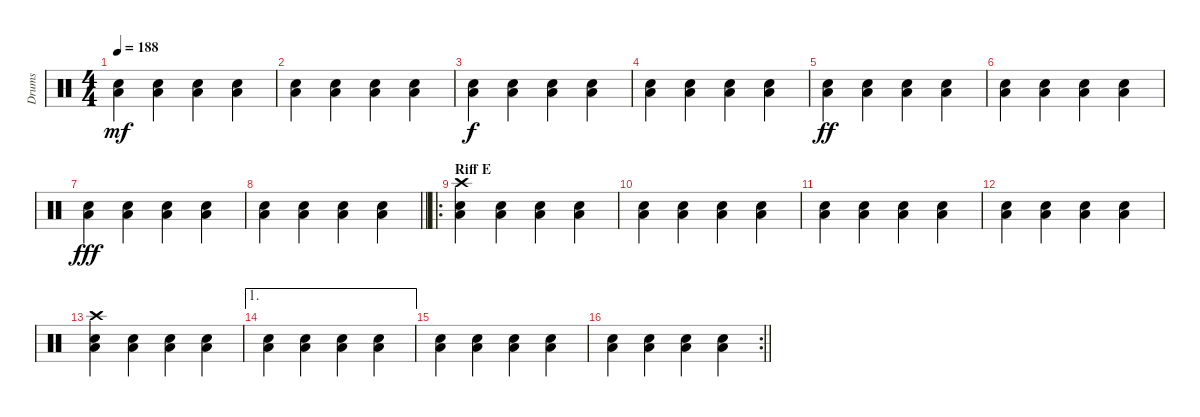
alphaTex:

\track ("Drums" "Drums") {instrument percussion}
\staff {score}
\articulation defaults
\ts (4 4)
\tempo 188
\clef neutral
\ks c
("Electric Snare (hit)" "Low Tom (hit)").4{dy mf} ("Electric Snare (hit)" "Low Tom (hit)").4 ("Electric Snare (hit)" "Low Tom (hit)").4 ("Electric Snare (hit)" "Low Tom (hit)").4 |
("Electric Snare (hit)" "Low Tom (hit)").4 ("Electric Snare (hit)" "Low Tom (hit)").4 ("Electric Snare (hit)" "Low Tom (hit)").4 ("Electric Snare (hit)" "Low Tom (hit)").4 |
("Electric Snare (hit)" "Low Tom (hit)").4{dy f} ("Electric Snare (hit)" "Low Tom (hit)").4 ("Electric Snare (hit)" "Low Tom (hit)").4 ("Electric Snare (hit)" "Low Tom (hit)").4 |
("Electric Snare (hit)" "Low Tom (hit)").4 ("Electric Snare (hit)" "Low Tom (hit)").4 ("Electric Snare (hit)" "Low Tom (hit)").4 ("Electric Snare (hit)" "Low Tom (hit)").4 |
("Electric Snare (hit)" "Low Tom (hit)").4{dy ff} ("Electric Snare (hit)" "Low Tom (hit)").4 ("Electric Snare (hit)" "Low Tom (hit)").4 ("Electric Snare (hit)" "Low Tom (hit)").4 |
("Electric Snare (hit)" "Low Tom (hit)").4 ("Electric Snare (hit)" "Low Tom (hit)").4 ("Electric Snare (hit)" "Low Tom (hit)").4 ("Electric Snare (hit)" "Low Tom (hit)").4 |
("Electric Snare (hit)" "Low Tom (hit)").4{dy fff} ("Electric Snare (hit)" "Low Tom (hit)").4 ("Electric Snare (hit)" "Low Tom (hit)").4 ("Electric Snare (hit)" "Low Tom (hit)").4 |
\barLineRight lightlight
("Electric Snare (hit)" "Low Tom (hit)").4 ("Electric Snare (hit)" "Low Tom (hit)").4 ("Electric Snare (hit)" "Low Tom (hit)").4 ("Electric Snare (hit)" "Low Tom (hit)").4 |
\ro
\section ("" "Riff E")
("Crash high (hit)" "Electric Snare (hit)" "Low Tom (hit)").4 ("Electric Snare (hit)" "Low Tom (hit)").4 ("Electric Snare (hit)" "Low Tom (hit)").4 ("Electric Snare (hit)" "Low Tom (hit)").4 |
("Electric Snare (hit)" "Low Tom (hit)").4 ("Electric Snare (hit)" "Low Tom (hit)").4 ("Electric Snare (hit)" "Low Tom (hit)").4 ("Electric Snare (hit)" "Low Tom (hit)").4 |
("Electric Snare (hit)" "Low Tom (hit)").4 ("Electric Snare (hit)" "Low Tom (hit)").4 ("Electric Snare (hit)" "Low Tom (hit)").4 ("Electric Snare (hit)" "Low Tom (hit)").4 |
("Electric Snare (hit)" "Low Tom (hit)").4 ("Electric Snare (hit)" "Low Tom (hit)").4 ("Electric Snare (hit)" "Low Tom (hit)").4 ("Electric Snare (hit)" "Low Tom (hit)").4 |
("Crash high (hit)" "Electric Snare (hit)" "Low Tom (hit)").4 ("Electric Snare (hit)" "Low Tom (hit)").4 ("Electric Snare (hit)" "Low Tom (hit)").4 ("Electric Snare (hit)" "Low Tom (hit)").4 |
\ae 1
("Electric Snare (hit)" "Low Tom (hit)").4 ("Electric Snare (hit)" "Low Tom (hit)").4 ("Electric Snare (hit)" "Low Tom (hit)").4 ("Electric Snare (hit)" "Low Tom (hit)").4 |
("Electric Snare (hit)" "Low Tom (hit)").4 ("Electric Snare (hit)" "Low Tom (hit)").4 ("Electric Snare (hit)" "Low Tom (hit)").4 ("Electric Snare (hit)" "Low Tom (hit)").4 |
\rc 2
\barLineRight lightlight
("Electric Snare (hit)" "Low Tom (hit)").4 ("Electric Snare (hit)" "Low Tom (hit)").4 ("Electric Snare (hit)" "Low Tom (hit)").4 ("Electric Snare (hit)" "Low Tom (hit)").4
